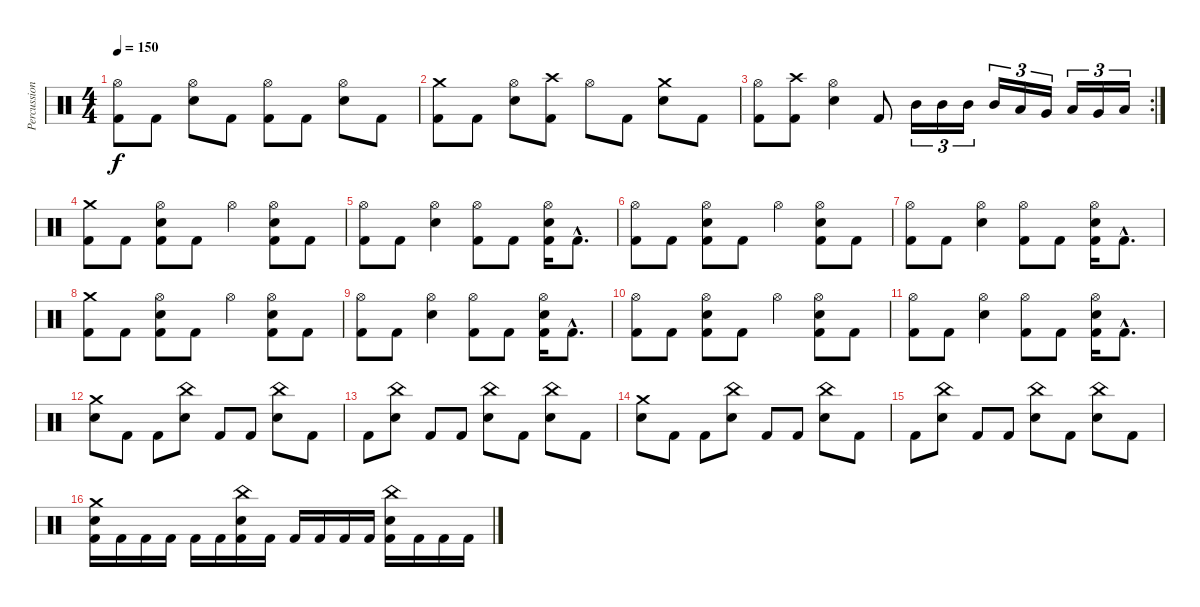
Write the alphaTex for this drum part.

\track ("Percussion" "Percussion") {instrument percussion}
\staff {score}
\articulation defaults
\ts (4 4)
\tempo 150
\clef neutral
\ks aminor
("Hi-Hat (open)" "Kick (hit) 2").8{dy f} "Kick (hit) 2".8 ("Hi-Hat (open)" "Electric Snare (hit)").8 "Kick (hit) 2".8 ("Hi-Hat (open)" "Kick (hit) 2").8 "Kick (hit) 2".8 ("Hi-Hat (open)" "Electric Snare (hit)").8 "Kick (hit) 2".8 |
("Crash medium (hit)" "Kick (hit) 2").8 "Kick (hit) 2".8 ("Hi-Hat (open)" "Electric Snare (hit)").8 ("Crash high (hit)" "Kick (hit) 2").8 "Hi-Hat (open)".8 "Kick (hit) 2".8 ("Crash medium (hit)" "Electric Snare (hit)").8 "Kick (hit) 2".8 |
\rc 2
("Hi-Hat (open)" "Kick (hit) 2").8 ("Crash high (hit)" "Kick (hit) 2").8 ("Hi-Hat (open)" "Electric Snare (hit)").4 "Kick (hit) 2".8 "Mid Tom (hit)".16{tu (3 2)} "Mid Tom (hit)".16{tu (3 2)} "Mid Tom (hit)".16{tu (3 2)} "Mid Tom (hit)".16{tu (3 2)} "Low Tom (hit)".16{tu (3 2)} "Very Low Tom (hit)".16{tu (3 2)} "Low Tom (hit)".16{tu (3 2)} "Very Low Tom (hit)".16{tu (3 2)} "Low Floor Tom (hit)".16{tu (3 2)} |
("Crash medium (hit)" "Kick (hit) 2").8 "Kick (hit) 2".8 ("Hi-Hat (open)" "Electric Snare (hit)" "Kick (hit) 2").8 "Kick (hit) 2".8 "Hi-Hat (open)".4 ("Hi-Hat (open)" "Electric Snare (hit)" "Kick (hit) 2").8 "Kick (hit) 2".8 |
("Hi-Hat (open)" "Kick (hit) 2").8 "Kick (hit) 2".8 ("Hi-Hat (open)" "Electric Snare (hit)").4 ("Hi-Hat (open)" "Kick (hit) 2").8 "Kick (hit) 2".8 ("Hi-Hat (open)" "Electric Snare (hit)" "Kick (hit) 2").16 "Kick (hit) 2"{hac}.8{d} |
("Hi-Hat (open)" "Kick (hit) 2").8 "Kick (hit) 2".8 ("Hi-Hat (open)" "Electric Snare (hit)" "Kick (hit) 2").8 "Kick (hit) 2".8 "Hi-Hat (open)".4 ("Hi-Hat (open)" "Electric Snare (hit)" "Kick (hit) 2").8 "Kick (hit) 2".8 |
("Hi-Hat (open)" "Kick (hit) 2").8 "Kick (hit) 2".8 ("Hi-Hat (open)" "Electric Snare (hit)").4 ("Hi-Hat (open)" "Kick (hit) 2").8 "Kick (hit) 2".8 ("Hi-Hat (open)" "Electric Snare (hit)" "Kick (hit) 2").16 "Kick (hit) 2"{hac}.8{d} |
("Crash medium (hit)" "Kick (hit) 2").8 "Kick (hit) 2".8 ("Hi-Hat (open)" "Electric Snare (hit)" "Kick (hit) 2").8 "Kick (hit) 2".8 "Hi-Hat (open)".4 ("Hi-Hat (open)" "Electric Snare (hit)" "Kick (hit) 2").8 "Kick (hit) 2".8 |
("Hi-Hat (open)" "Kick (hit) 2").8 "Kick (hit) 2".8 ("Hi-Hat (open)" "Electric Snare (hit)").4 ("Hi-Hat (open)" "Kick (hit) 2").8 "Kick (hit) 2".8 ("Hi-Hat (open)" "Electric Snare (hit)" "Kick (hit) 2").16 "Kick (hit) 2"{hac}.8{d} |
("Hi-Hat (open)" "Kick (hit) 2").8 "Kick (hit) 2".8 ("Hi-Hat (open)" "Electric Snare (hit)" "Kick (hit) 2").8 "Kick (hit) 2".8 "Hi-Hat (open)".4 ("Hi-Hat (open)" "Electric Snare (hit)" "Kick (hit) 2").8 "Kick (hit) 2".8 |
("Hi-Hat (open)" "Kick (hit) 2").8 "Kick (hit) 2".8 ("Hi-Hat (open)" "Electric Snare (hit)").4 ("Hi-Hat (open)" "Kick (hit) 2").8 "Kick (hit) 2".8 ("Hi-Hat (open)" "Electric Snare (hit)" "Kick (hit) 2").16 "Kick (hit) 2"{hac}.8{d} |
("Crash medium (hit)" "Electric Snare (hit)").8 "Kick (hit) 2".8 "Kick (hit) 2".8 ("China (hit)" "Electric Snare (hit)").8 "Kick (hit) 2".8 "Kick (hit) 2".8 ("China (hit)" "Electric Snare (hit)").8 "Kick (hit) 2".8 |
"Kick (hit) 2".8 ("China (hit)" "Electric Snare (hit)").8 "Kick (hit) 2".8 "Kick (hit) 2".8 ("China (hit)" "Electric Snare (hit)").8 "Kick (hit) 2".8 ("China (hit)" "Electric Snare (hit)").8 "Kick (hit) 2".8 |
("Crash medium (hit)" "Electric Snare (hit)").8 "Kick (hit) 2".8 "Kick (hit) 2".8 ("China (hit)" "Electric Snare (hit)").8 "Kick (hit) 2".8 "Kick (hit) 2".8 ("China (hit)" "Electric Snare (hit)").8 "Kick (hit) 2".8 |
"Kick (hit) 2".8 ("China (hit)" "Electric Snare (hit)").8 "Kick (hit) 2".8 "Kick (hit) 2".8 ("China (hit)" "Electric Snare (hit)").8 "Kick (hit) 2".8 ("China (hit)" "Electric Snare (hit)").8 "Kick (hit) 2".8 |
("Crash medium (hit)" "Electric Snare (hit)" "Kick (hit) 2").16 "Kick (hit) 2".16 "Kick (hit) 2".16 "Kick (hit) 2".16 "Kick (hit) 2".16 "Kick (hit) 2".16 ("China (hit)" "Electric Snare (hit)" "Kick (hit) 2").16 "Kick (hit) 2".16 "Kick (hit) 2".16 "Kick (hit) 2".16 "Kick (hit) 2".16 "Kick (hit) 2".16 ("China (hit)" "Electric Snare (hit)" "Kick (hit) 2").16 "Kick (hit) 2".16 "Kick (hit) 2".16 "Kick (hit) 2".16
